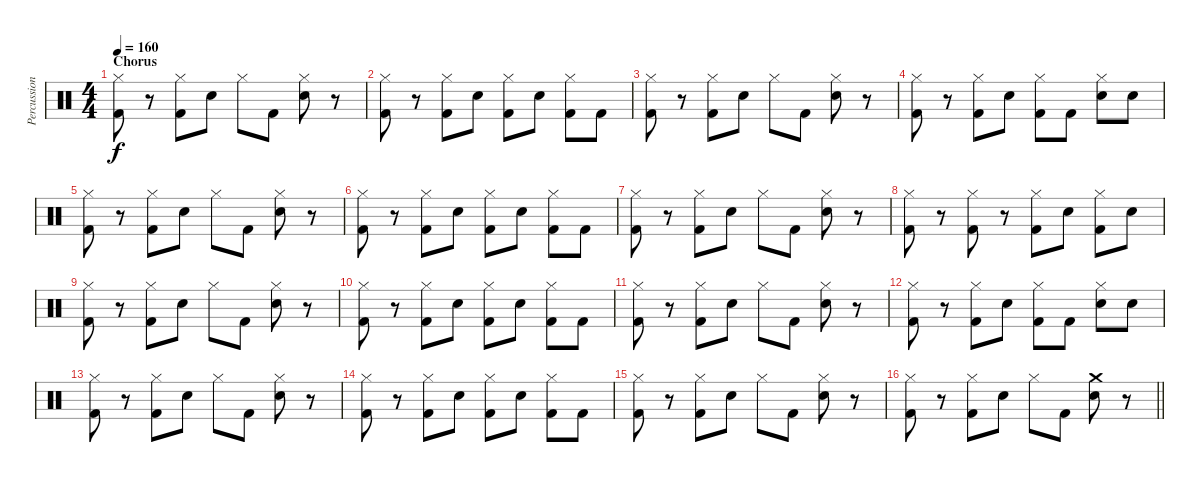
\track ("Percussion" "Percussion") {instrument percussion}
\staff {score}
\articulation defaults
\ts (4 4)
\section ("" "Chorus")
\tempo 160
\clef neutral
\ks c
("Hi-Hat (closed)" "Kick (hit) 2").8{dy f} r.8 ("Hi-Hat (closed)" "Kick (hit) 2").8 "Snare (hit) 2".8 "Hi-Hat (closed)".8 "Kick (hit) 2".8 ("Hi-Hat (closed)" "Snare (hit) 2").8 r.8 |
("Hi-Hat (closed)" "Kick (hit) 2").8 r.8 ("Hi-Hat (closed)" "Kick (hit) 2").8 "Snare (hit) 2".8 ("Hi-Hat (closed)" "Kick (hit) 2").8 "Snare (hit) 2".8 ("Hi-Hat (closed)" "Kick (hit) 2").8 "Kick (hit) 2".8 |
("Hi-Hat (closed)" "Kick (hit) 2").8 r.8 ("Hi-Hat (closed)" "Kick (hit) 2").8 "Snare (hit) 2".8 "Hi-Hat (closed)".8 "Kick (hit) 2".8 ("Hi-Hat (closed)" "Snare (hit) 2").8 r.8 |
("Hi-Hat (closed)" "Kick (hit) 2").8 r.8 ("Hi-Hat (closed)" "Kick (hit) 2").8 "Snare (hit) 2".8 ("Hi-Hat (closed)" "Kick (hit) 2").8 "Kick (hit) 2".8 ("Hi-Hat (closed)" "Snare (hit) 2").8 "Snare (hit) 2".8 |
("Hi-Hat (closed)" "Kick (hit) 2").8 r.8 ("Hi-Hat (closed)" "Kick (hit) 2").8 "Snare (hit) 2".8 "Hi-Hat (closed)".8 "Kick (hit) 2".8 ("Hi-Hat (closed)" "Snare (hit) 2").8 r.8 |
("Hi-Hat (closed)" "Kick (hit) 2").8 r.8 ("Hi-Hat (closed)" "Kick (hit) 2").8 "Snare (hit) 2".8 ("Hi-Hat (closed)" "Kick (hit) 2").8 "Snare (hit) 2".8 ("Hi-Hat (closed)" "Kick (hit) 2").8 "Kick (hit) 2".8 |
("Hi-Hat (closed)" "Kick (hit) 2").8 r.8 ("Hi-Hat (closed)" "Kick (hit) 2").8 "Snare (hit) 2".8 "Hi-Hat (closed)".8 "Kick (hit) 2".8 ("Hi-Hat (closed)" "Snare (hit) 2").8 r.8 |
("Hi-Hat (closed)" "Kick (hit) 2").8 r.8 ("Hi-Hat (closed)" "Kick (hit) 2").8 r.8 ("Hi-Hat (closed)" "Kick (hit) 2").8 "Snare (hit) 2".8 ("Hi-Hat (closed)" "Kick (hit) 2").8 "Snare (hit) 2".8 |
("Hi-Hat (closed)" "Kick (hit) 2").8 r.8 ("Hi-Hat (closed)" "Kick (hit) 2").8 "Snare (hit) 2".8 "Hi-Hat (closed)".8 "Kick (hit) 2".8 ("Hi-Hat (closed)" "Snare (hit) 2").8 r.8 |
("Hi-Hat (closed)" "Kick (hit) 2").8 r.8 ("Hi-Hat (closed)" "Kick (hit) 2").8 "Snare (hit) 2".8 ("Hi-Hat (closed)" "Kick (hit) 2").8 "Snare (hit) 2".8 ("Hi-Hat (closed)" "Kick (hit) 2").8 "Kick (hit) 2".8 |
("Hi-Hat (closed)" "Kick (hit) 2").8 r.8 ("Hi-Hat (closed)" "Kick (hit) 2").8 "Snare (hit) 2".8 "Hi-Hat (closed)".8 "Kick (hit) 2".8 ("Hi-Hat (closed)" "Snare (hit) 2").8 r.8 |
("Hi-Hat (closed)" "Kick (hit) 2").8 r.8 ("Hi-Hat (closed)" "Kick (hit) 2").8 "Snare (hit) 2".8 ("Hi-Hat (closed)" "Kick (hit) 2").8 "Kick (hit) 2".8 ("Hi-Hat (closed)" "Snare (hit) 2").8 "Snare (hit) 2".8 |
("Hi-Hat (closed)" "Kick (hit) 2").8 r.8 ("Hi-Hat (closed)" "Kick (hit) 2").8 "Snare (hit) 2".8 "Hi-Hat (closed)".8 "Kick (hit) 2".8 ("Hi-Hat (closed)" "Snare (hit) 2").8 r.8 |
("Hi-Hat (closed)" "Kick (hit) 2").8 r.8 ("Hi-Hat (closed)" "Kick (hit) 2").8 "Snare (hit) 2".8 ("Hi-Hat (closed)" "Kick (hit) 2").8 "Snare (hit) 2".8 ("Hi-Hat (closed)" "Kick (hit) 2").8 "Kick (hit) 2".8 |
("Hi-Hat (closed)" "Kick (hit) 2").8 r.8 ("Hi-Hat (closed)" "Kick (hit) 2").8 "Snare (hit) 2".8 "Hi-Hat (closed)".8 "Kick (hit) 2".8 ("Hi-Hat (closed)" "Snare (hit) 2").8 r.8 |
\barLineRight lightlight
("Hi-Hat (closed)" "Kick (hit) 2").8 r.8 ("Hi-Hat (closed)" "Kick (hit) 2").8 "Snare (hit) 2".8 "Hi-Hat (closed)".8 "Kick (hit) 2".8 ("Crash medium (hit)" "Snare (hit) 2").8 r.8
